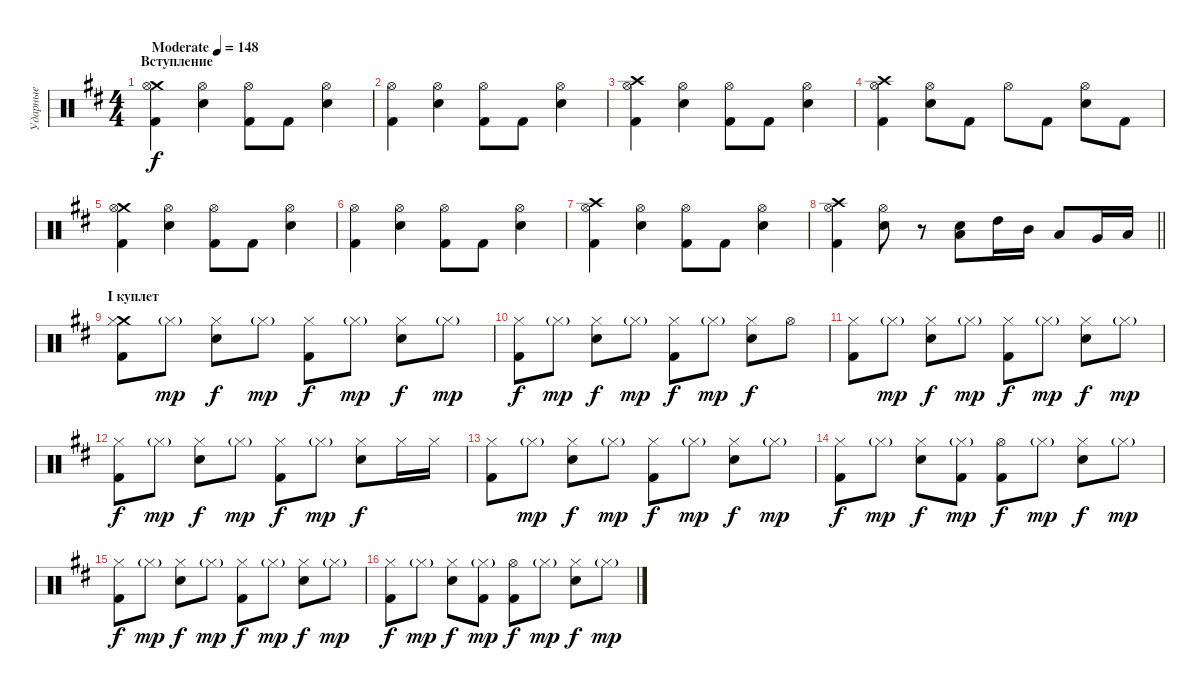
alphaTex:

\track ("Ударные" "Ударные") {instrument percussion}
\staff {score}
\articulation defaults
\ts (4 4)
\section ("" "Вступление")
\tempo (148 "Moderate")
\clef neutral
\ks bminor
("Crash medium (hit)" "Kick (hit) 2" "Hi-Hat (open)").4{dy f} ("Electric Snare (hit)" "Hi-Hat (open)").4 ("Kick (hit) 2" "Hi-Hat (open)").8 "Kick (hit) 2".8 ("Electric Snare (hit)" "Hi-Hat (open)").4 |
("Kick (hit) 2" "Hi-Hat (open)").4 ("Electric Snare (hit)" "Hi-Hat (open)").4 ("Kick (hit) 2" "Hi-Hat (open)").8 "Kick (hit) 2".8 ("Electric Snare (hit)" "Hi-Hat (open)").4 |
("Crash high (hit)" "Kick (hit) 2" "Hi-Hat (open)").4 ("Electric Snare (hit)" "Hi-Hat (open)").4 ("Kick (hit) 2" "Hi-Hat (open)").8 "Kick (hit) 2".8 ("Electric Snare (hit)" "Hi-Hat (open)").4 |
("Crash high (hit)" "Kick (hit) 2" "Hi-Hat (open)").4 ("Electric Snare (hit)" "Hi-Hat (open)").8 "Kick (hit) 2".8 "Hi-Hat (open)".8 "Kick (hit) 2".8 ("Electric Snare (hit)" "Hi-Hat (open)").8 "Kick (hit) 2".8 |
("Crash medium (hit)" "Kick (hit) 2" "Hi-Hat (open)").4 ("Electric Snare (hit)" "Hi-Hat (open)").4 ("Kick (hit) 2" "Hi-Hat (open)").8 "Kick (hit) 2".8 ("Electric Snare (hit)" "Hi-Hat (open)").4 |
("Kick (hit) 2" "Hi-Hat (open)").4 ("Electric Snare (hit)" "Hi-Hat (open)").4 ("Kick (hit) 2" "Hi-Hat (open)").8 "Kick (hit) 2".8 ("Electric Snare (hit)" "Hi-Hat (open)").4 |
("Crash high (hit)" "Kick (hit) 2" "Hi-Hat (open)").4 ("Electric Snare (hit)" "Hi-Hat (open)").4 ("Kick (hit) 2" "Hi-Hat (open)").8 "Kick (hit) 2".8 ("Electric Snare (hit)" "Hi-Hat (open)").4 |
\barLineRight lightlight
("Crash high (hit)" "Kick (hit) 2" "Hi-Hat (open)").4 ("Electric Snare (hit)" "Hi-Hat (open)").8 r.8 ("Low Tom (hit)" "Electric Snare (hit)").8 "High Tom (hit)".16 "Mid Tom (hit)".16 "Low Tom (hit)".8 "Very Low Tom (hit)".16 "Low Floor Tom (hit)".16 |
\section ("" "I куплет")
("Crash medium (hit)" "Kick (hit) 2" "Hi-Hat (closed)").8 "Hi-Hat (closed)"{g}.8{dy mp} ("Electric Snare (hit)" "Hi-Hat (closed)").8{dy f} "Hi-Hat (closed)"{g}.8{dy mp} ("Kick (hit) 2" "Hi-Hat (closed)").8{dy f} "Hi-Hat (closed)"{g}.8{dy mp} ("Electric Snare (hit)" "Hi-Hat (closed)").8{dy f} "Hi-Hat (closed)"{g}.8{dy mp} |
("Kick (hit) 2" "Hi-Hat (closed)").8{dy f} "Hi-Hat (closed)"{g}.8{dy mp} ("Electric Snare (hit)" "Hi-Hat (closed)").8{dy f} "Hi-Hat (closed)"{g}.8{dy mp} ("Kick (hit) 2" "Hi-Hat (closed)").8{dy f} "Hi-Hat (closed)"{g}.8{dy mp} ("Electric Snare (hit)" "Hi-Hat (closed)").8{dy f} "Hi-Hat (open)".8 |
("Kick (hit) 2" "Hi-Hat (closed)").8 "Hi-Hat (closed)"{g}.8{dy mp} ("Electric Snare (hit)" "Hi-Hat (closed)").8{dy f} "Hi-Hat (closed)"{g}.8{dy mp} ("Kick (hit) 2" "Hi-Hat (closed)").8{dy f} "Hi-Hat (closed)"{g}.8{dy mp} ("Electric Snare (hit)" "Hi-Hat (closed)").8{dy f} "Hi-Hat (closed)"{g}.8{dy mp} |
("Kick (hit) 2" "Hi-Hat (closed)").8{dy f} "Hi-Hat (closed)"{g}.8{dy mp} ("Electric Snare (hit)" "Hi-Hat (closed)").8{dy f} "Hi-Hat (closed)"{g}.8{dy mp} ("Kick (hit) 2" "Hi-Hat (closed)").8{dy f} "Hi-Hat (closed)"{g}.8{dy mp} ("Electric Snare (hit)" "Hi-Hat (closed)").8{dy f} "Hi-Hat (closed)".16 "Hi-Hat (closed)".16 |
("Kick (hit) 2" "Hi-Hat (closed)").8 "Hi-Hat (closed)"{g}.8{dy mp} ("Electric Snare (hit)" "Hi-Hat (closed)").8{dy f} "Hi-Hat (closed)"{g}.8{dy mp} ("Kick (hit) 2" "Hi-Hat (closed)").8{dy f} "Hi-Hat (closed)"{g}.8{dy mp} ("Electric Snare (hit)" "Hi-Hat (closed)").8{dy f} "Hi-Hat (closed)"{g}.8{dy mp} |
("Kick (hit) 2" "Hi-Hat (closed)").8{dy f} "Hi-Hat (closed)"{g}.8{dy mp} ("Electric Snare (hit)" "Hi-Hat (closed)").8{dy f} ("Kick (hit) 2" "Hi-Hat (closed)"{g}).8{dy mp} ("Kick (hit) 2" "Hi-Hat (open)").8{dy f} "Hi-Hat (closed)"{g}.8{dy mp} ("Electric Snare (hit)" "Hi-Hat (closed)").8{dy f} "Hi-Hat (closed)"{g}.8{dy mp} |
("Kick (hit) 2" "Hi-Hat (closed)").8{dy f} "Hi-Hat (closed)"{g}.8{dy mp} ("Electric Snare (hit)" "Hi-Hat (closed)").8{dy f} "Hi-Hat (closed)"{g}.8{dy mp} ("Kick (hit) 2" "Hi-Hat (closed)").8{dy f} "Hi-Hat (closed)"{g}.8{dy mp} ("Electric Snare (hit)" "Hi-Hat (closed)").8{dy f} "Hi-Hat (closed)"{g}.8{dy mp} |
("Kick (hit) 2" "Hi-Hat (closed)").8{dy f} "Hi-Hat (closed)"{g}.8{dy mp} ("Electric Snare (hit)" "Hi-Hat (closed)").8{dy f} ("Kick (hit) 2" "Hi-Hat (closed)"{g}).8{dy mp} ("Kick (hit) 2" "Hi-Hat (open)").8{dy f} "Hi-Hat (closed)"{g}.8{dy mp} ("Electric Snare (hit)" "Hi-Hat (closed)").8{dy f} "Hi-Hat (closed)"{g}.8{dy mp}
